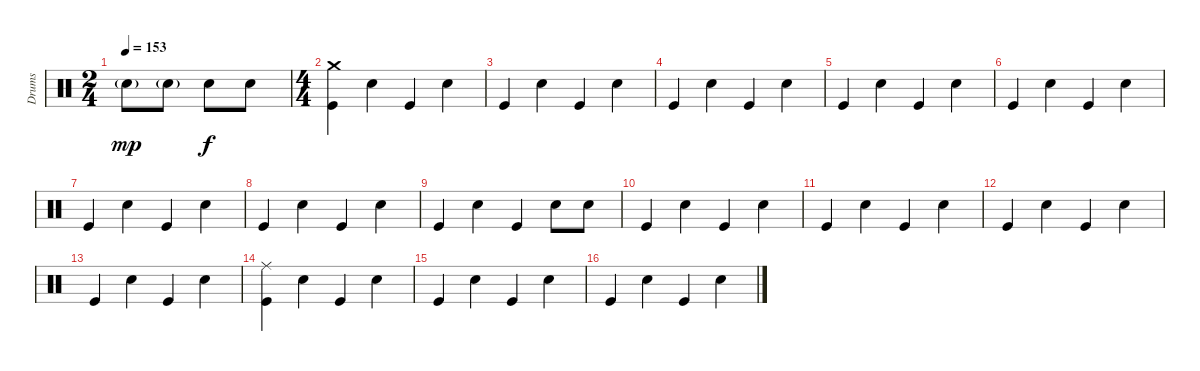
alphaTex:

\track ("Drums" "Drums") {instrument percussion}
\staff {score}
\articulation defaults
\ts (2 4)
\tempo 153
\clef neutral
\ks c "Snare (hit) 2"{g}.8{dy mp} "Snare (hit) 2"{g}.8 "Snare (hit) 2".8{dy f} "Snare (hit) 2".8
|
\ts (4 4)
("Crash medium (hit)" "Kick (hit)").4 "Snare (hit) 2".4 "Kick (hit)".4 "Snare (hit) 2".4 |
"Kick (hit)".4 "Snare (hit) 2".4 "Kick (hit)".4 "Snare (hit) 2".4 |
"Kick (hit)".4 "Snare (hit) 2".4 "Kick (hit)".4 "Snare (hit) 2".4 |
"Kick (hit)".4 "Snare (hit) 2".4 "Kick (hit)".4 "Snare (hit) 2".4 |
"Kick (hit)".4 "Snare (hit) 2".4 "Kick (hit)".4 "Snare (hit) 2".4 |
"Kick (hit)".4 "Snare (hit) 2".4 "Kick (hit)".4 "Snare (hit) 2".4 |
"Kick (hit)".4 "Snare (hit) 2".4 "Kick (hit)".4 "Snare (hit) 2".4 |
"Kick (hit)".4 "Snare (hit) 2".4 "Kick (hit)".4 "Snare (hit) 2".8 "Snare (hit) 2".8 |
"Kick (hit)".4 "Snare (hit) 2".4 "Kick (hit)".4 "Snare (hit) 2".4 |
"Kick (hit)".4 "Snare (hit) 2".4 "Kick (hit)".4 "Snare (hit) 2".4 |
"Kick (hit)".4 "Snare (hit) 2".4 "Kick (hit)".4 "Snare (hit) 2".4 |
"Kick (hit)".4 "Snare (hit) 2".4 "Kick (hit)".4 "Snare (hit) 2".4 |
("Ride (middle)" "Kick (hit)").4 "Snare (hit) 2".4 "Kick (hit)".4 "Snare (hit) 2".4 |
"Kick (hit)".4 "Snare (hit) 2".4 "Kick (hit)".4 "Snare (hit) 2".4 |
"Kick (hit)".4 "Snare (hit) 2".4 "Kick (hit)".4 "Snare (hit) 2".4
